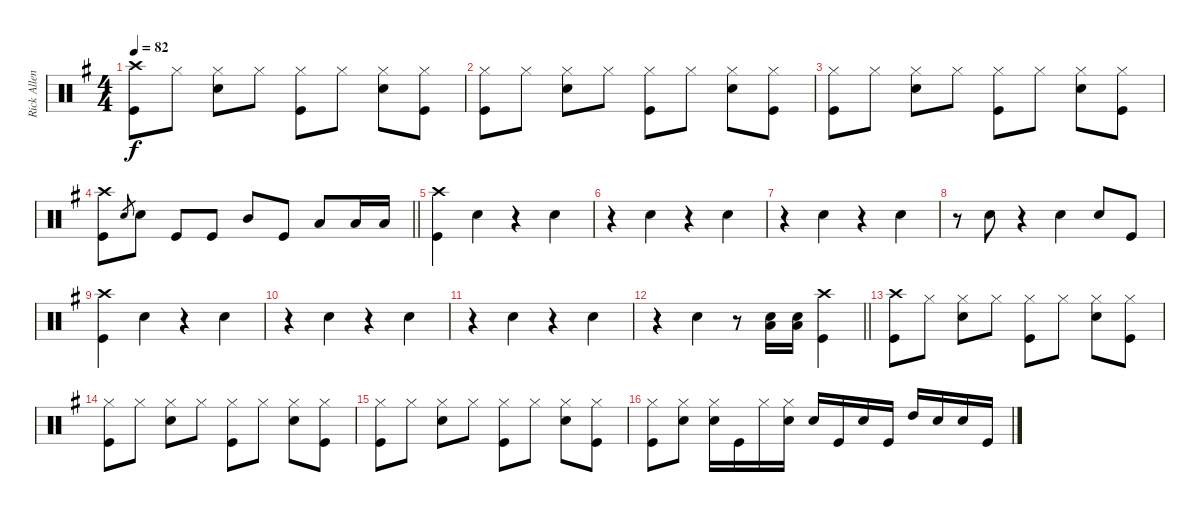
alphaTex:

\track ("Rick Allen" "Rick Allen") {instrument percussion}
\staff {score}
\articulation defaults
\ts (4 4)
\tempo 82
\clef neutral
\ks eminor
("Crash high (hit)" "Kick (hit)").8{dy f} "Hi-Hat (closed)".8 ("Hi-Hat (closed)" "Snare (hit) 2").8 "Hi-Hat (closed)".8 ("Hi-Hat (closed)" "Kick (hit)").8 "Hi-Hat (closed)".8 ("Hi-Hat (closed)" "Snare (hit) 2").8 ("Hi-Hat (closed)" "Kick (hit)").8 |
("Hi-Hat (closed)" "Kick (hit)").8 "Hi-Hat (closed)".8 ("Hi-Hat (closed)" "Snare (hit) 2").8 "Hi-Hat (closed)".8 ("Hi-Hat (closed)" "Kick (hit)").8 "Hi-Hat (closed)".8 ("Hi-Hat (closed)" "Snare (hit) 2").8 ("Hi-Hat (closed)" "Kick (hit)").8 |
("Hi-Hat (closed)" "Kick (hit)").8 "Hi-Hat (closed)".8 ("Hi-Hat (closed)" "Snare (hit) 2").8 "Hi-Hat (closed)".8 ("Hi-Hat (closed)" "Kick (hit)").8 "Hi-Hat (closed)".8 ("Hi-Hat (closed)" "Snare (hit) 2").8 ("Hi-Hat (closed)" "Kick (hit)").8 |
\barLineRight lightlight
("Crash high (hit)" "Kick (hit)").8 "Snare (hit) 2".8{gr} "Snare (hit) 2".8 "Kick (hit)".8 "Kick (hit)".8 "Mid Tom (hit)".8 "Kick (hit)".8 "Low Tom (hit)".8 "Low Tom (hit)".16 "Low Tom (hit)".16 |
("Crash high (hit)" "Kick (hit)").4 "Snare (hit) 2".4 r.4 "Snare (hit) 2".4 |
r.4 "Snare (hit) 2".4 r.4 "Snare (hit) 2".4 |
r.4 "Snare (hit) 2".4 r.4 "Snare (hit) 2".4 |
r.8 "Snare (hit) 2".8 r.4 "Snare (hit) 2".4 "Snare (hit) 2".8 "Kick (hit)".8 |
("Crash high (hit)" "Kick (hit)").4 "Snare (hit) 2".4 r.4 "Snare (hit) 2".4 |
r.4 "Snare (hit) 2".4 r.4 "Snare (hit) 2".4 |
r.4 "Snare (hit) 2".4 r.4 "Snare (hit) 2".4 |
\barLineRight lightlight
r.4 "Snare (hit) 2".4 r.8 ("Low Floor Tom (hit)" "Snare (hit) 2").16 ("Low Floor Tom (hit)" "Snare (hit) 2").16 ("Crash high (hit)" "Kick (hit)").4 |
("Crash high (hit)" "Kick (hit)").8 "Hi-Hat (closed)".8 ("Hi-Hat (closed)" "Snare (hit) 2").8 "Hi-Hat (closed)".8 ("Hi-Hat (closed)" "Kick (hit)").8 "Hi-Hat (closed)".8 ("Hi-Hat (closed)" "Snare (hit) 2").8 ("Hi-Hat (closed)" "Kick (hit)").8 |
("Hi-Hat (closed)" "Kick (hit)").8 "Hi-Hat (closed)".8 ("Hi-Hat (closed)" "Snare (hit) 2").8 "Hi-Hat (closed)".8 ("Hi-Hat (closed)" "Kick (hit)").8 "Hi-Hat (closed)".8 ("Hi-Hat (closed)" "Snare (hit) 2").8 ("Hi-Hat (closed)" "Kick (hit)").8 |
("Hi-Hat (closed)" "Kick (hit)").8 "Hi-Hat (closed)".8 ("Hi-Hat (closed)" "Snare (hit) 2").8 "Hi-Hat (closed)".8 ("Hi-Hat (closed)" "Kick (hit)").8 "Hi-Hat (closed)".8 ("Hi-Hat (closed)" "Snare (hit) 2").8 ("Hi-Hat (closed)" "Kick (hit)").8 |
("Hi-Hat (closed)" "Kick (hit)").8 ("Hi-Hat (closed)" "Snare (hit) 2").8 ("Hi-Hat (closed)" "Snare (hit) 2").16 "Kick (hit)".16 "Hi-Hat (closed)".16 ("Hi-Hat (closed)" "Snare (hit) 2").16 "Snare (hit) 2".16 "Kick (hit)".16 "Snare (hit) 2".16 "Kick (hit)".16 "High Tom (hit)".16 "Snare (hit) 2".16 "Snare (hit) 2".16 "Kick (hit)".16
